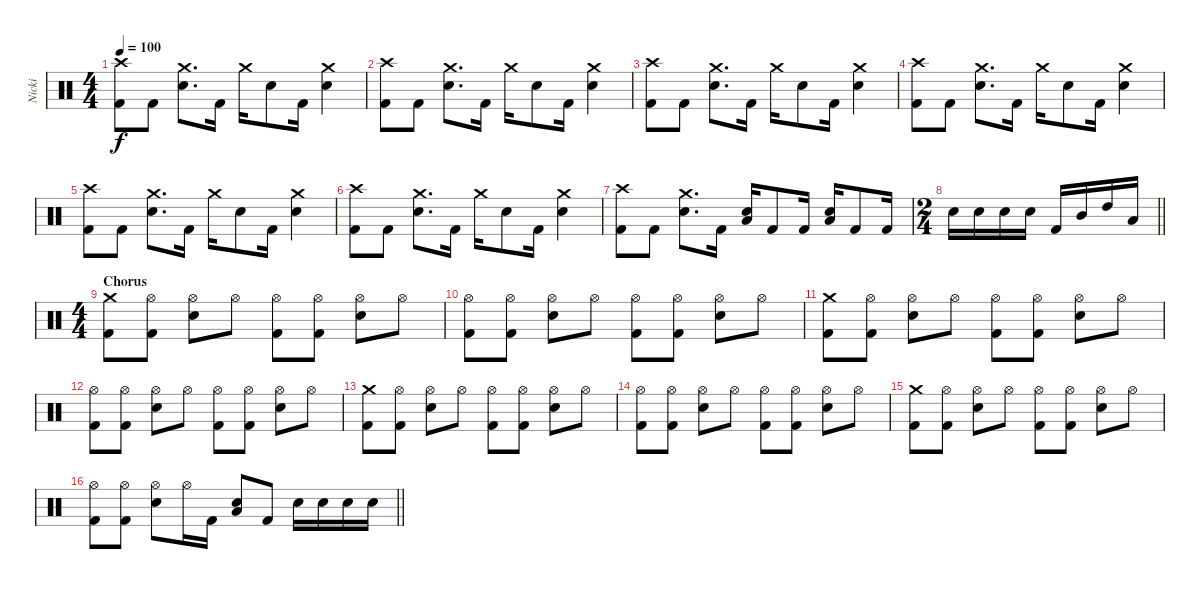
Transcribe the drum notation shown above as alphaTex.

\track ("Nicki" "Nicki") {instrument percussion}
\staff {score}
\articulation defaults
\ts (4 4)
\tempo 100
\clef neutral
\ks c
("Crash high (hit)" "Kick (hit) 2").8{dy f} "Kick (hit) 2".8 ("Crash medium (hit)" "Snare (hit) 2").8{d} "Kick (hit) 2".16 "Crash medium (hit)".16 "Snare (hit) 2".8 "Kick (hit) 2".16 ("Crash medium (hit)" "Snare (hit) 2").4 |
("Crash high (hit)" "Kick (hit) 2").8 "Kick (hit) 2".8 ("Crash medium (hit)" "Snare (hit) 2").8{d} "Kick (hit) 2".16 "Crash medium (hit)".16 "Snare (hit) 2".8 "Kick (hit) 2".16 ("Crash medium (hit)" "Snare (hit) 2").4 |
("Crash high (hit)" "Kick (hit) 2").8 "Kick (hit) 2".8 ("Crash medium (hit)" "Snare (hit) 2").8{d} "Kick (hit) 2".16 "Crash medium (hit)".16 "Snare (hit) 2".8 "Kick (hit) 2".16 ("Crash medium (hit)" "Snare (hit) 2").4 |
("Crash high (hit)" "Kick (hit) 2").8 "Kick (hit) 2".8 ("Crash medium (hit)" "Snare (hit) 2").8{d} "Kick (hit) 2".16 "Crash medium (hit)".16 "Snare (hit) 2".8 "Kick (hit) 2".16 ("Crash medium (hit)" "Snare (hit) 2").4 |
("Crash high (hit)" "Kick (hit) 2").8 "Kick (hit) 2".8 ("Crash medium (hit)" "Snare (hit) 2").8{d} "Kick (hit) 2".16 "Crash medium (hit)".16 "Snare (hit) 2".8 "Kick (hit) 2".16 ("Crash medium (hit)" "Snare (hit) 2").4 |
("Crash high (hit)" "Kick (hit) 2").8 "Kick (hit) 2".8 ("Crash medium (hit)" "Snare (hit) 2").8{d} "Kick (hit) 2".16 "Crash medium (hit)".16 "Snare (hit) 2".8 "Kick (hit) 2".16 ("Crash medium (hit)" "Snare (hit) 2").4 |
("Crash high (hit)" "Kick (hit) 2").8 "Kick (hit) 2".8 ("Crash medium (hit)" "Snare (hit) 2").8{d} "Kick (hit) 2".16 ("Low Floor Tom (hit)" "Snare (hit) 2").16 "Kick (hit) 2".8 "Kick (hit) 2".16 ("Low Floor Tom (hit)" "Snare (hit) 2").16 "Kick (hit) 2".8 "Kick (hit) 2".16 |
\ts (2 4)
\barLineRight lightlight "Snare (hit) 2".16 "Snare (hit) 2".16 "Snare (hit) 2".16 "Snare (hit) 2".16 "Kick (hit) 2".16 "Mid Tom (hit)".16 "High Tom (hit)".16 "Low Floor Tom (hit)".16
|
\ts (4 4)
\section ("" "Chorus")
("Crash medium (hit)" "Kick (hit) 2").8 ("Hi-Hat (open)" "Kick (hit) 2").8 ("Hi-Hat (open)" "Snare (hit) 2").8 "Hi-Hat (open)".8 ("Hi-Hat (open)" "Kick (hit) 2").8 ("Hi-Hat (open)" "Kick (hit) 2").8 ("Hi-Hat (open)" "Snare (hit) 2").8 "Hi-Hat (open)".8 |
("Hi-Hat (open)" "Kick (hit) 2").8 ("Hi-Hat (open)" "Kick (hit) 2").8 ("Hi-Hat (open)" "Snare (hit) 2").8 "Hi-Hat (open)".8 ("Hi-Hat (open)" "Kick (hit) 2").8 ("Hi-Hat (open)" "Kick (hit) 2").8 ("Hi-Hat (open)" "Snare (hit) 2").8 "Hi-Hat (open)".8 |
("Crash medium (hit)" "Kick (hit) 2").8 ("Hi-Hat (open)" "Kick (hit) 2").8 ("Hi-Hat (open)" "Snare (hit) 2").8 "Hi-Hat (open)".8 ("Hi-Hat (open)" "Kick (hit) 2").8 ("Hi-Hat (open)" "Kick (hit) 2").8 ("Hi-Hat (open)" "Snare (hit) 2").8 "Hi-Hat (open)".8 |
("Hi-Hat (open)" "Kick (hit) 2").8 ("Hi-Hat (open)" "Kick (hit) 2").8 ("Hi-Hat (open)" "Snare (hit) 2").8 "Hi-Hat (open)".8 ("Hi-Hat (open)" "Kick (hit) 2").8 ("Hi-Hat (open)" "Kick (hit) 2").8 ("Hi-Hat (open)" "Snare (hit) 2").8 "Hi-Hat (open)".8 |
("Crash medium (hit)" "Kick (hit) 2").8 ("Hi-Hat (open)" "Kick (hit) 2").8 ("Hi-Hat (open)" "Snare (hit) 2").8 "Hi-Hat (open)".8 ("Hi-Hat (open)" "Kick (hit) 2").8 ("Hi-Hat (open)" "Kick (hit) 2").8 ("Hi-Hat (open)" "Snare (hit) 2").8 "Hi-Hat (open)".8 |
("Hi-Hat (open)" "Kick (hit) 2").8 ("Hi-Hat (open)" "Kick (hit) 2").8 ("Hi-Hat (open)" "Snare (hit) 2").8 "Hi-Hat (open)".8 ("Hi-Hat (open)" "Kick (hit) 2").8 ("Hi-Hat (open)" "Kick (hit) 2").8 ("Hi-Hat (open)" "Snare (hit) 2").8 "Hi-Hat (open)".8 |
("Crash medium (hit)" "Kick (hit) 2").8 ("Hi-Hat (open)" "Kick (hit) 2").8 ("Hi-Hat (open)" "Snare (hit) 2").8 "Hi-Hat (open)".8 ("Hi-Hat (open)" "Kick (hit) 2").8 ("Hi-Hat (open)" "Kick (hit) 2").8 ("Hi-Hat (open)" "Snare (hit) 2").8 "Hi-Hat (open)".8 |
\barLineRight lightlight
("Hi-Hat (open)" "Kick (hit) 2").8 ("Hi-Hat (open)" "Kick (hit) 2").8 ("Hi-Hat (open)" "Snare (hit) 2").8 "Hi-Hat (open)".16 "Kick (hit) 2".16 ("Low Floor Tom (hit)" "Snare (hit) 2").8 "Kick (hit) 2".8 "Snare (hit) 2".16 "Snare (hit) 2".16 "Snare (hit) 2".16 "Snare (hit) 2".16
